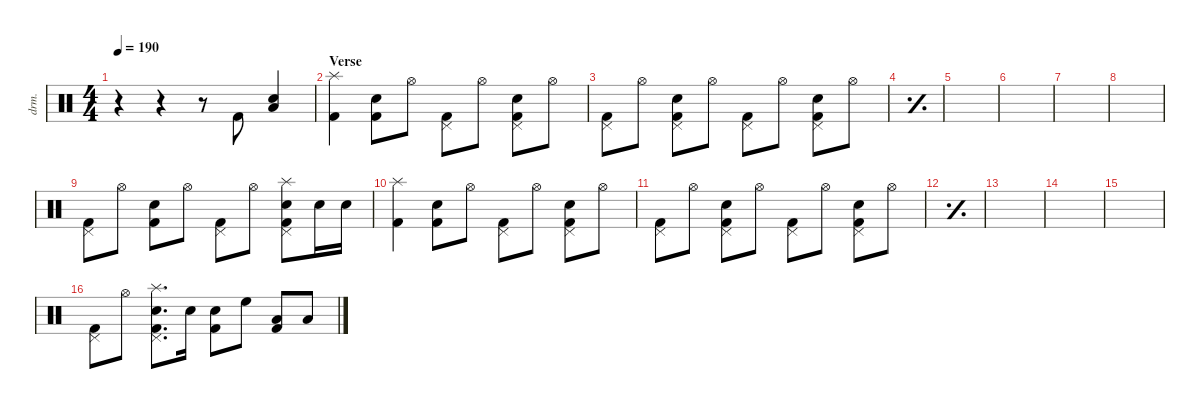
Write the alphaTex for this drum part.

\defaultSystemsLayout 4
\hideDynamics
\bracketExtendMode nobrackets
\track ("伊地知虹夏" "drm.") {instrument percussion}
\staff {score}
\articulation defaults
\ts (4 4)
\tempo 190
\clef neutral
\ks c
r.4{dy mf beam Down} r.4{beam Down} r.8{beam Down} "Kick (hit) 2".8{beam Up} ("Low Tom (hit)" "Snare (hit) 2").4{beam Up} |
\section ("" "Verse")
("Kick (hit) 2" "Splash (hit)").4{beam Down} ("Kick (hit) 2" "Snare (hit) 2").8{beam Down} "Hi-Hat (open)".8{beam Down} ("Kick (hit) 2" "Pedal Hi-Hat (hit)").8{beam Down} "Hi-Hat (open)".8{beam Down} ("Kick (hit) 2" "Snare (hit) 2" "Pedal Hi-Hat (hit)").8{beam Down} "Hi-Hat (open)".8{beam Down} |
("Kick (hit) 2" "Pedal Hi-Hat (hit)").8{beam Down} "Hi-Hat (open)".8{beam Down} ("Kick (hit) 2" "Snare (hit) 2" "Pedal Hi-Hat (hit)").8{beam Down} "Hi-Hat (open)".8{beam Down} ("Kick (hit) 2" "Pedal Hi-Hat (hit)").8{beam Down} "Hi-Hat (open)".8{beam Down} ("Kick (hit) 2" "Snare (hit) 2" "Pedal Hi-Hat (hit)").8{beam Down} "Hi-Hat (open)".8{beam Down} |
\simile simple
|
|
|
|
|
\simile none
("Kick (hit) 2" "Pedal Hi-Hat (hit)").8{beam Down} "Hi-Hat (open)".8{beam Down} ("Kick (hit) 2" "Snare (hit) 2").8{beam Down} "Hi-Hat (open)".8{beam Down} ("Kick (hit) 2" "Pedal Hi-Hat (hit)").8{beam Down} "Hi-Hat (open)".8{beam Down} ("Kick (hit) 2" "Snare (hit) 2" "Pedal Hi-Hat (hit)" "Splash (hit)").8{beam Down} "Snare (hit) 2".16{beam Down} "Snare (hit) 2".16{beam Down} |
("Kick (hit) 2" "Splash (hit)").4{beam Down} ("Kick (hit) 2" "Snare (hit) 2").8{beam Down} "Hi-Hat (open)".8{beam Down} ("Kick (hit) 2" "Pedal Hi-Hat (hit)").8{beam Down} "Hi-Hat (open)".8{beam Down} ("Kick (hit) 2" "Snare (hit) 2" "Pedal Hi-Hat (hit)").8{beam Down} "Hi-Hat (open)".8{beam Down} |
("Kick (hit) 2" "Pedal Hi-Hat (hit)").8{beam Down} "Hi-Hat (open)".8{beam Down} ("Kick (hit) 2" "Snare (hit) 2" "Pedal Hi-Hat (hit)").8{beam Down} "Hi-Hat (open)".8{beam Down} ("Kick (hit) 2" "Pedal Hi-Hat (hit)").8{beam Down} "Hi-Hat (open)".8{beam Down} ("Kick (hit) 2" "Snare (hit) 2" "Pedal Hi-Hat (hit)").8{beam Down} "Hi-Hat (open)".8{beam Down} |
\simile simple
|
|
|
|
\simile none
("Kick (hit) 2" "Pedal Hi-Hat (hit)").8{beam Down} "Hi-Hat (open)".8{beam Down} ("Pedal Hi-Hat (hit)" "Kick (hit) 2" "Snare (hit) 2" "Splash (hit)").8{d beam Down} "Snare (hit) 2".16{beam Down} ("Snare (hit) 2" "Kick (hit) 2").8{beam Down} "High Floor Tom (hit)".8{beam Down} ("Kick (hit) 2" "Low Tom (hit)").8{beam Up} "Low Tom (hit)".8{beam Up}
